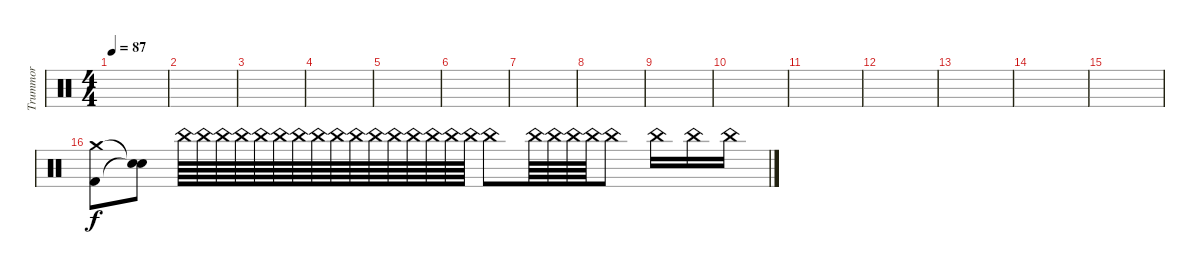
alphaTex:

\track ("Trummor" "Trummor") {instrument percussion}
\staff {score}
\articulation defaults
\ts (4 4)
\tempo 87
\clef neutral
\ks c
|
|
|
|
|
|
|
|
|
|
|
|
|
|
|
("Crash medium (hit)" "Kick (hit) 2").8 ("Snare (hit)"{t} "Snare (hit)"{t}).8{dy f} "China (hit)".64 "China (hit)".64 "China (hit)".64 "China (hit)".64 "China (hit)".64 "China (hit)".64 "China (hit)".64 "China (hit)".64 "China (hit)".64 "China (hit)".64 "China (hit)".64 "China (hit)".64 "China (hit)".64 "China (hit)".64 "China (hit)".64 "China (hit)".64 "China (hit)".8 "China (hit)".64 "China (hit)".64 "China (hit)".64 "China (hit)".64 "China (hit)".8 "China (hit)".16 "China (hit)".16 "China (hit)".16
